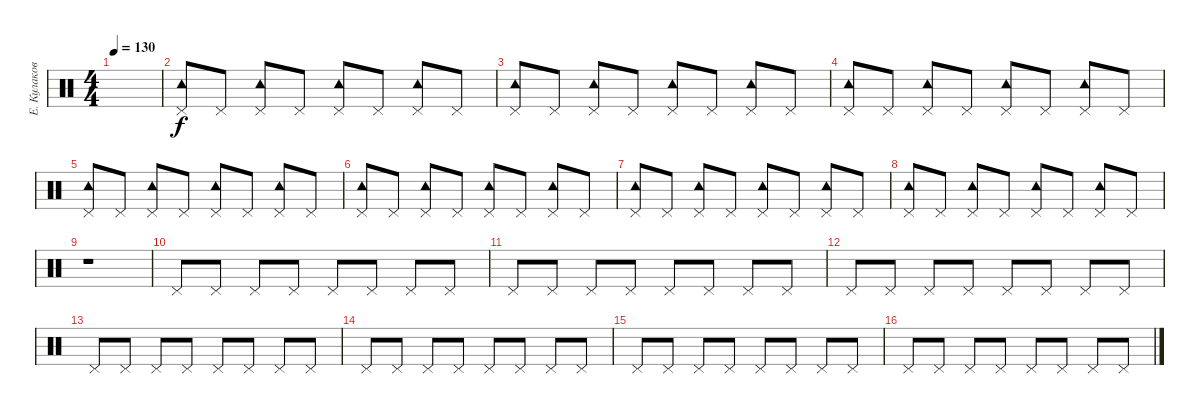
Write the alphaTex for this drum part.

\track ("Е. Кулаков Hi-Hat" "Е. Кулаков") {instrument percussion}
\staff {score}
\articulation defaults
\ts (4 4)
\tempo 130
\clef neutral
\ks c
|
("Pedal Hi-Hat (hit)" "Tambourine (hit)").8 "Pedal Hi-Hat (hit)".8 ("Pedal Hi-Hat (hit)" "Tambourine (hit)").8 "Pedal Hi-Hat (hit)".8 ("Pedal Hi-Hat (hit)" "Tambourine (hit)").8 "Pedal Hi-Hat (hit)".8 ("Pedal Hi-Hat (hit)" "Tambourine (hit)").8 "Pedal Hi-Hat (hit)".8 |
("Pedal Hi-Hat (hit)" "Tambourine (hit)").8 "Pedal Hi-Hat (hit)".8 ("Pedal Hi-Hat (hit)" "Tambourine (hit)").8 "Pedal Hi-Hat (hit)".8 ("Pedal Hi-Hat (hit)" "Tambourine (hit)").8 "Pedal Hi-Hat (hit)".8 ("Pedal Hi-Hat (hit)" "Tambourine (hit)").8 "Pedal Hi-Hat (hit)".8 |
("Pedal Hi-Hat (hit)" "Tambourine (hit)").8 "Pedal Hi-Hat (hit)".8 ("Pedal Hi-Hat (hit)" "Tambourine (hit)").8 "Pedal Hi-Hat (hit)".8 ("Pedal Hi-Hat (hit)" "Tambourine (hit)").8 "Pedal Hi-Hat (hit)".8 ("Pedal Hi-Hat (hit)" "Tambourine (hit)").8 "Pedal Hi-Hat (hit)".8 |
("Pedal Hi-Hat (hit)" "Tambourine (hit)").8 "Pedal Hi-Hat (hit)".8 ("Pedal Hi-Hat (hit)" "Tambourine (hit)").8 "Pedal Hi-Hat (hit)".8 ("Pedal Hi-Hat (hit)" "Tambourine (hit)").8 "Pedal Hi-Hat (hit)".8 ("Pedal Hi-Hat (hit)" "Tambourine (hit)").8 "Pedal Hi-Hat (hit)".8 |
("Pedal Hi-Hat (hit)" "Tambourine (hit)").8 "Pedal Hi-Hat (hit)".8 ("Pedal Hi-Hat (hit)" "Tambourine (hit)").8 "Pedal Hi-Hat (hit)".8 ("Pedal Hi-Hat (hit)" "Tambourine (hit)").8 "Pedal Hi-Hat (hit)".8 ("Pedal Hi-Hat (hit)" "Tambourine (hit)").8 "Pedal Hi-Hat (hit)".8 |
("Pedal Hi-Hat (hit)" "Tambourine (hit)").8 "Pedal Hi-Hat (hit)".8 ("Pedal Hi-Hat (hit)" "Tambourine (hit)").8 "Pedal Hi-Hat (hit)".8 ("Pedal Hi-Hat (hit)" "Tambourine (hit)").8 "Pedal Hi-Hat (hit)".8 ("Pedal Hi-Hat (hit)" "Tambourine (hit)").8 "Pedal Hi-Hat (hit)".8 |
("Pedal Hi-Hat (hit)" "Tambourine (hit)").8 "Pedal Hi-Hat (hit)".8 ("Pedal Hi-Hat (hit)" "Tambourine (hit)").8 "Pedal Hi-Hat (hit)".8 ("Pedal Hi-Hat (hit)" "Tambourine (hit)").8 "Pedal Hi-Hat (hit)".8 ("Pedal Hi-Hat (hit)" "Tambourine (hit)").8 "Pedal Hi-Hat (hit)".8 |
r.1 |
"Pedal Hi-Hat (hit)".8 "Pedal Hi-Hat (hit)".8 "Pedal Hi-Hat (hit)".8 "Pedal Hi-Hat (hit)".8 "Pedal Hi-Hat (hit)".8 "Pedal Hi-Hat (hit)".8 "Pedal Hi-Hat (hit)".8 "Pedal Hi-Hat (hit)".8 |
"Pedal Hi-Hat (hit)".8 "Pedal Hi-Hat (hit)".8 "Pedal Hi-Hat (hit)".8 "Pedal Hi-Hat (hit)".8 "Pedal Hi-Hat (hit)".8 "Pedal Hi-Hat (hit)".8 "Pedal Hi-Hat (hit)".8 "Pedal Hi-Hat (hit)".8 |
"Pedal Hi-Hat (hit)".8 "Pedal Hi-Hat (hit)".8 "Pedal Hi-Hat (hit)".8 "Pedal Hi-Hat (hit)".8 "Pedal Hi-Hat (hit)".8 "Pedal Hi-Hat (hit)".8 "Pedal Hi-Hat (hit)".8 "Pedal Hi-Hat (hit)".8 |
"Pedal Hi-Hat (hit)".8 "Pedal Hi-Hat (hit)".8 "Pedal Hi-Hat (hit)".8 "Pedal Hi-Hat (hit)".8 "Pedal Hi-Hat (hit)".8 "Pedal Hi-Hat (hit)".8 "Pedal Hi-Hat (hit)".8 "Pedal Hi-Hat (hit)".8 |
"Pedal Hi-Hat (hit)".8 "Pedal Hi-Hat (hit)".8 "Pedal Hi-Hat (hit)".8 "Pedal Hi-Hat (hit)".8 "Pedal Hi-Hat (hit)".8 "Pedal Hi-Hat (hit)".8 "Pedal Hi-Hat (hit)".8 "Pedal Hi-Hat (hit)".8 |
"Pedal Hi-Hat (hit)".8 "Pedal Hi-Hat (hit)".8 "Pedal Hi-Hat (hit)".8 "Pedal Hi-Hat (hit)".8 "Pedal Hi-Hat (hit)".8 "Pedal Hi-Hat (hit)".8 "Pedal Hi-Hat (hit)".8 "Pedal Hi-Hat (hit)".8 |
"Pedal Hi-Hat (hit)".8 "Pedal Hi-Hat (hit)".8 "Pedal Hi-Hat (hit)".8 "Pedal Hi-Hat (hit)".8 "Pedal Hi-Hat (hit)".8 "Pedal Hi-Hat (hit)".8 "Pedal Hi-Hat (hit)".8 "Pedal Hi-Hat (hit)".8
